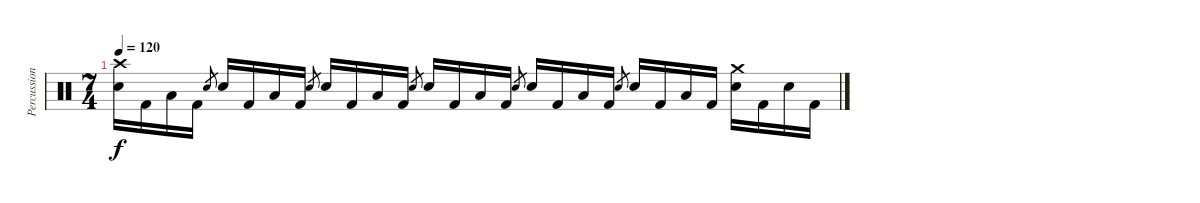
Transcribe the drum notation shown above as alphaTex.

\track ("Percussion" "Percussion") {instrument percussion}
\staff {score}
\articulation defaults
\ts (7 4)
\tempo 120
\clef neutral
\ks c
("Crash high (hit)" "Electric Snare (hit)").16{dy f} "Kick (hit) 2".16 "Low Floor Tom (hit)".16 "Kick (hit) 2".16 "Electric Snare (hit)".8{gr} "Electric Snare (hit)".16 "Kick (hit) 2".16 "Low Floor Tom (hit)".16 "Kick (hit) 2".16 "Electric Snare (hit)".8{gr} "Electric Snare (hit)".16 "Kick (hit) 2".16 "Low Floor Tom (hit)".16 "Kick (hit) 2".16 "Electric Snare (hit)".8{gr} "Electric Snare (hit)".16 "Kick (hit) 2".16 "Low Floor Tom (hit)".16 "Kick (hit) 2".16 "Electric Snare (hit)".8{gr} "Electric Snare (hit)".16 "Kick (hit) 2".16 "Low Floor Tom (hit)".16 "Kick (hit) 2".16 "Electric Snare (hit)".8{gr} "Electric Snare (hit)".16 "Kick (hit) 2".16 "Low Floor Tom (hit)".16 "Kick (hit) 2".16 ("Crash medium (hit)" "Electric Snare (hit)").16 "Kick (hit) 2".16 "Electric Snare (hit)".16 "Kick (hit) 2".16
